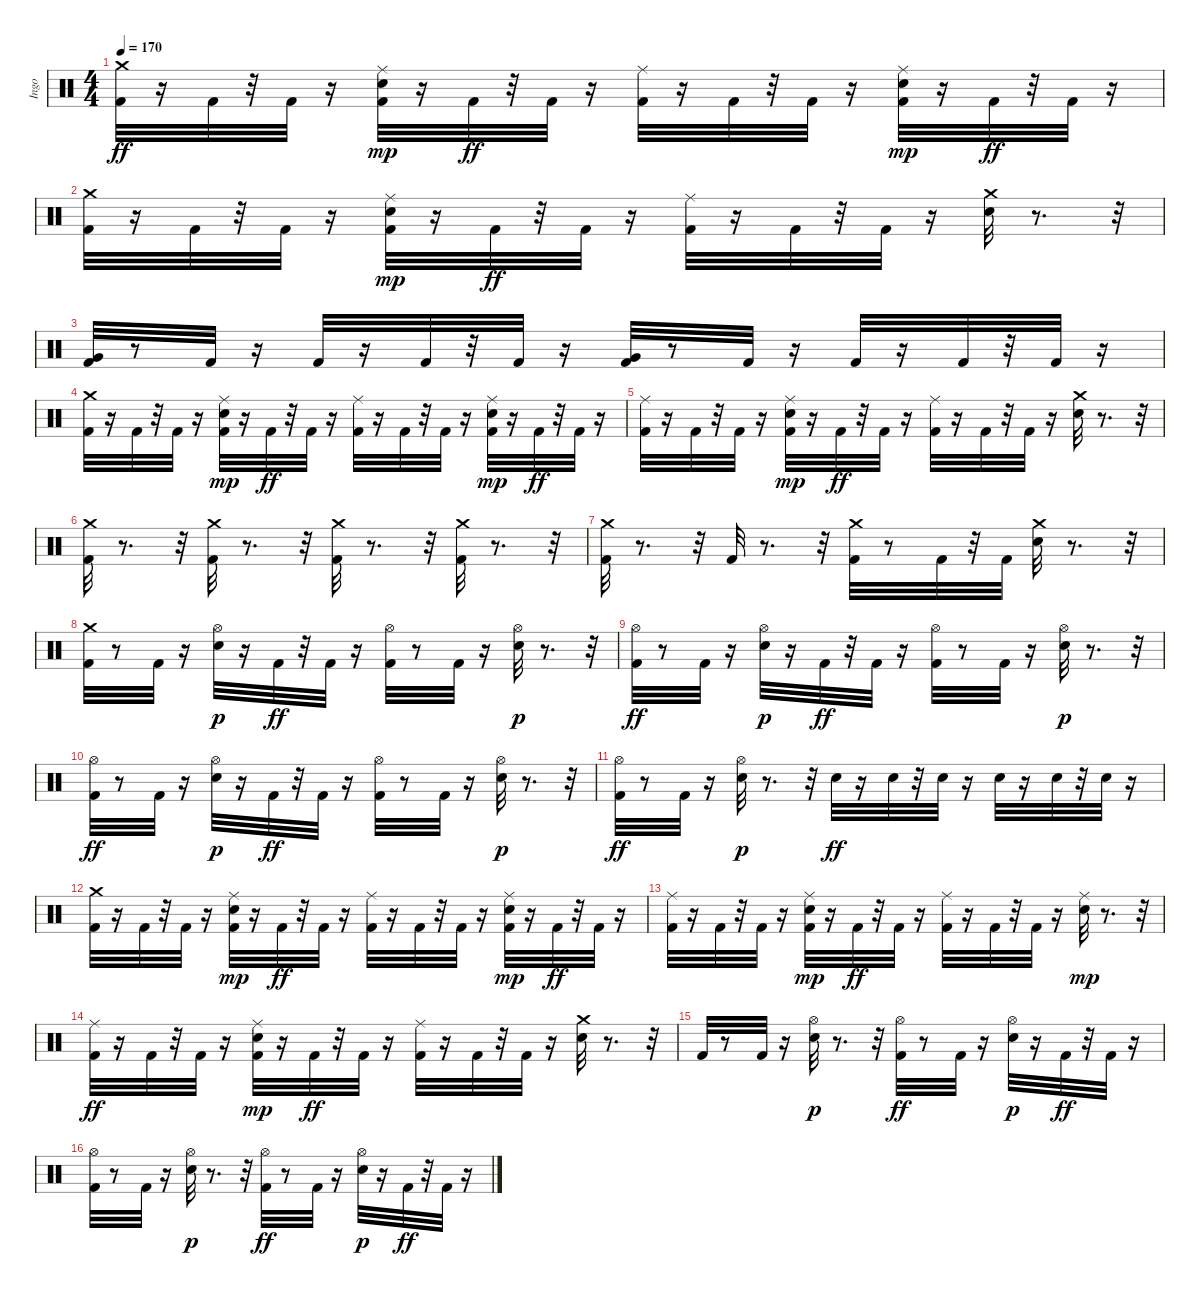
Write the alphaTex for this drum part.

\track ("Ingo" "Ingo") {instrument percussion}
\staff {score}
\articulation defaults
\ts (4 4)
\tempo 170
\clef neutral
\ks c
("Crash medium (hit)" "Kick (hit) 2").32{dy ff} r.16 "Kick (hit) 2".32 r.32 "Kick (hit) 2".32 r.16 ("Kick (hit) 2" "Snare (hit) 2" "Ride (middle)").32{dy mp} r.16 "Kick (hit) 2".32{dy ff} r.32 "Kick (hit) 2".32 r.16 ("Ride (middle)" "Kick (hit) 2").32 r.16 "Kick (hit) 2".32 r.32 "Kick (hit) 2".32 r.16 ("Kick (hit) 2" "Snare (hit) 2" "Ride (middle)").32{dy mp} r.16 "Kick (hit) 2".32{dy ff} r.32 "Kick (hit) 2".32 r.16 |
("Crash medium (hit)" "Kick (hit) 2").32 r.16 "Kick (hit) 2".32 r.32 "Kick (hit) 2".32 r.16 ("Kick (hit) 2" "Snare (hit) 2" "Ride (middle)").32{dy mp} r.16 "Kick (hit) 2".32{dy ff} r.32 "Kick (hit) 2".32 r.16 ("Ride (middle)" "Kick (hit) 2").32 r.16 "Kick (hit) 2".32 r.32 "Kick (hit) 2".32 r.16 ("Snare (hit) 2" "Crash medium (hit)").32 r.8{d} r.32 |
("Very Low Tom (hit)" "Kick (hit) 2").32 r.8 "Kick (hit) 2".32 r.16 "Kick (hit) 2".32 r.16 "Kick (hit) 2".32 r.32 "Kick (hit) 2".32 r.16 ("Very Low Tom (hit)" "Kick (hit) 2").32 r.8 "Kick (hit) 2".32 r.16 "Kick (hit) 2".32 r.16 "Kick (hit) 2".32 r.32 "Kick (hit) 2".32 r.16 |
("Crash medium (hit)" "Kick (hit) 2").32 r.16 "Kick (hit) 2".32 r.32 "Kick (hit) 2".32 r.16 ("Kick (hit) 2" "Snare (hit) 2" "Ride (middle)").32{dy mp} r.16 "Kick (hit) 2".32{dy ff} r.32 "Kick (hit) 2".32 r.16 ("Ride (middle)" "Kick (hit) 2").32 r.16 "Kick (hit) 2".32 r.32 "Kick (hit) 2".32 r.16 ("Kick (hit) 2" "Snare (hit) 2" "Ride (middle)").32{dy mp} r.16 "Kick (hit) 2".32{dy ff} r.32 "Kick (hit) 2".32 r.16 |
("Ride (middle)" "Kick (hit) 2").32 r.16 "Kick (hit) 2".32 r.32 "Kick (hit) 2".32 r.16 ("Kick (hit) 2" "Snare (hit) 2" "Ride (middle)").32{dy mp} r.16 "Kick (hit) 2".32{dy ff} r.32 "Kick (hit) 2".32 r.16 ("Ride (middle)" "Kick (hit) 2").32 r.16 "Kick (hit) 2".32 r.32 "Kick (hit) 2".32 r.16 ("Snare (hit) 2" "Crash medium (hit)").32 r.8{d} r.32 |
("Crash medium (hit)" "Kick (hit) 2").32 r.8{d} r.32 ("Crash medium (hit)" "Kick (hit) 2").32 r.8{d} r.32 ("Crash medium (hit)" "Kick (hit) 2").32 r.8{d} r.32 ("Crash medium (hit)" "Kick (hit) 2").32 r.8{d} r.32 |
("Crash medium (hit)" "Kick (hit) 2").32 r.8{d} r.32 "Kick (hit) 2".32 r.8{d} r.32 ("Crash medium (hit)" "Kick (hit) 2").32 r.8 "Kick (hit) 2".32 r.32 "Kick (hit) 2".32 ("Snare (hit) 2" "Crash medium (hit)").32 r.8{d} r.32 |
("Crash medium (hit)" "Kick (hit) 2").32 r.8 "Kick (hit) 2".32 r.16 ("Snare (hit) 2" "Hi-Hat (open)").32{dy p} r.16 "Kick (hit) 2".32{dy ff} r.32 "Kick (hit) 2".32 r.16 ("Hi-Hat (open)" "Kick (hit) 2").32 r.8 "Kick (hit) 2".32 r.16 ("Snare (hit) 2" "Hi-Hat (open)").32{dy p} r.8{d} r.32 |
("Hi-Hat (open)" "Kick (hit) 2").32{dy ff} r.8 "Kick (hit) 2".32 r.16 ("Snare (hit) 2" "Hi-Hat (open)").32{dy p} r.16 "Kick (hit) 2".32{dy ff} r.32 "Kick (hit) 2".32 r.16 ("Hi-Hat (open)" "Kick (hit) 2").32 r.8 "Kick (hit) 2".32 r.16 ("Snare (hit) 2" "Hi-Hat (open)").32{dy p} r.8{d} r.32 |
("Hi-Hat (open)" "Kick (hit) 2").32{dy ff} r.8 "Kick (hit) 2".32 r.16 ("Snare (hit) 2" "Hi-Hat (open)").32{dy p} r.16 "Kick (hit) 2".32{dy ff} r.32 "Kick (hit) 2".32 r.16 ("Hi-Hat (open)" "Kick (hit) 2").32 r.8 "Kick (hit) 2".32 r.16 ("Snare (hit) 2" "Hi-Hat (open)").32{dy p} r.8{d} r.32 |
("Hi-Hat (open)" "Kick (hit) 2").32{dy ff} r.8 "Kick (hit) 2".32 r.16 ("Snare (hit) 2" "Hi-Hat (open)").32{dy p} r.8{d} r.32 "Snare (hit) 2".32{dy ff} r.16 "Snare (hit) 2".32 r.32 "Snare (hit) 2".32 r.16 "Snare (hit) 2".32 r.16 "Snare (hit) 2".32 r.32 "Snare (hit) 2".32 r.16 |
("Crash medium (hit)" "Kick (hit) 2").32 r.16 "Kick (hit) 2".32 r.32 "Kick (hit) 2".32 r.16 ("Kick (hit) 2" "Snare (hit) 2" "Ride (middle)").32{dy mp} r.16 "Kick (hit) 2".32{dy ff} r.32 "Kick (hit) 2".32 r.16 ("Ride (middle)" "Kick (hit) 2").32 r.16 "Kick (hit) 2".32 r.32 "Kick (hit) 2".32 r.16 ("Kick (hit) 2" "Snare (hit) 2" "Ride (middle)").32{dy mp} r.16 "Kick (hit) 2".32{dy ff} r.32 "Kick (hit) 2".32 r.16 |
("Ride (middle)" "Kick (hit) 2").32 r.16 "Kick (hit) 2".32 r.32 "Kick (hit) 2".32 r.16 ("Kick (hit) 2" "Snare (hit) 2" "Ride (middle)").32{dy mp} r.16 "Kick (hit) 2".32{dy ff} r.32 "Kick (hit) 2".32 r.16 ("Ride (middle)" "Kick (hit) 2").32 r.16 "Kick (hit) 2".32 r.32 "Kick (hit) 2".32 r.16 ("Snare (hit) 2" "Ride (middle)").32{dy mp} r.8{d} r.32 |
("Ride (middle)" "Kick (hit) 2").32{dy ff} r.16 "Kick (hit) 2".32 r.32 "Kick (hit) 2".32 r.16 ("Kick (hit) 2" "Snare (hit) 2" "Ride (middle)").32{dy mp} r.16 "Kick (hit) 2".32{dy ff} r.32 "Kick (hit) 2".32 r.16 ("Ride (middle)" "Kick (hit) 2").32 r.16 "Kick (hit) 2".32 r.32 "Kick (hit) 2".32 r.16 ("Crash medium (hit)" "Snare (hit) 2").32 r.8{d} r.32 |
"Kick (hit) 2".32 r.8 "Kick (hit) 2".32 r.16 ("Snare (hit) 2" "Hi-Hat (open)").32{dy p} r.8{d} r.32 ("Hi-Hat (open)" "Kick (hit) 2").32{dy ff} r.8 "Kick (hit) 2".32 r.16 ("Snare (hit) 2" "Hi-Hat (open)").32{dy p} r.16 "Kick (hit) 2".32{dy ff} r.32 "Kick (hit) 2".32 r.16 |
("Hi-Hat (open)" "Kick (hit) 2").32 r.8 "Kick (hit) 2".32 r.16 ("Snare (hit) 2" "Hi-Hat (open)").32{dy p} r.8{d} r.32 ("Hi-Hat (open)" "Kick (hit) 2").32{dy ff} r.8 "Kick (hit) 2".32 r.16 ("Snare (hit) 2" "Hi-Hat (open)").32{dy p} r.16 "Kick (hit) 2".32{dy ff} r.32 "Kick (hit) 2".32 r.16
